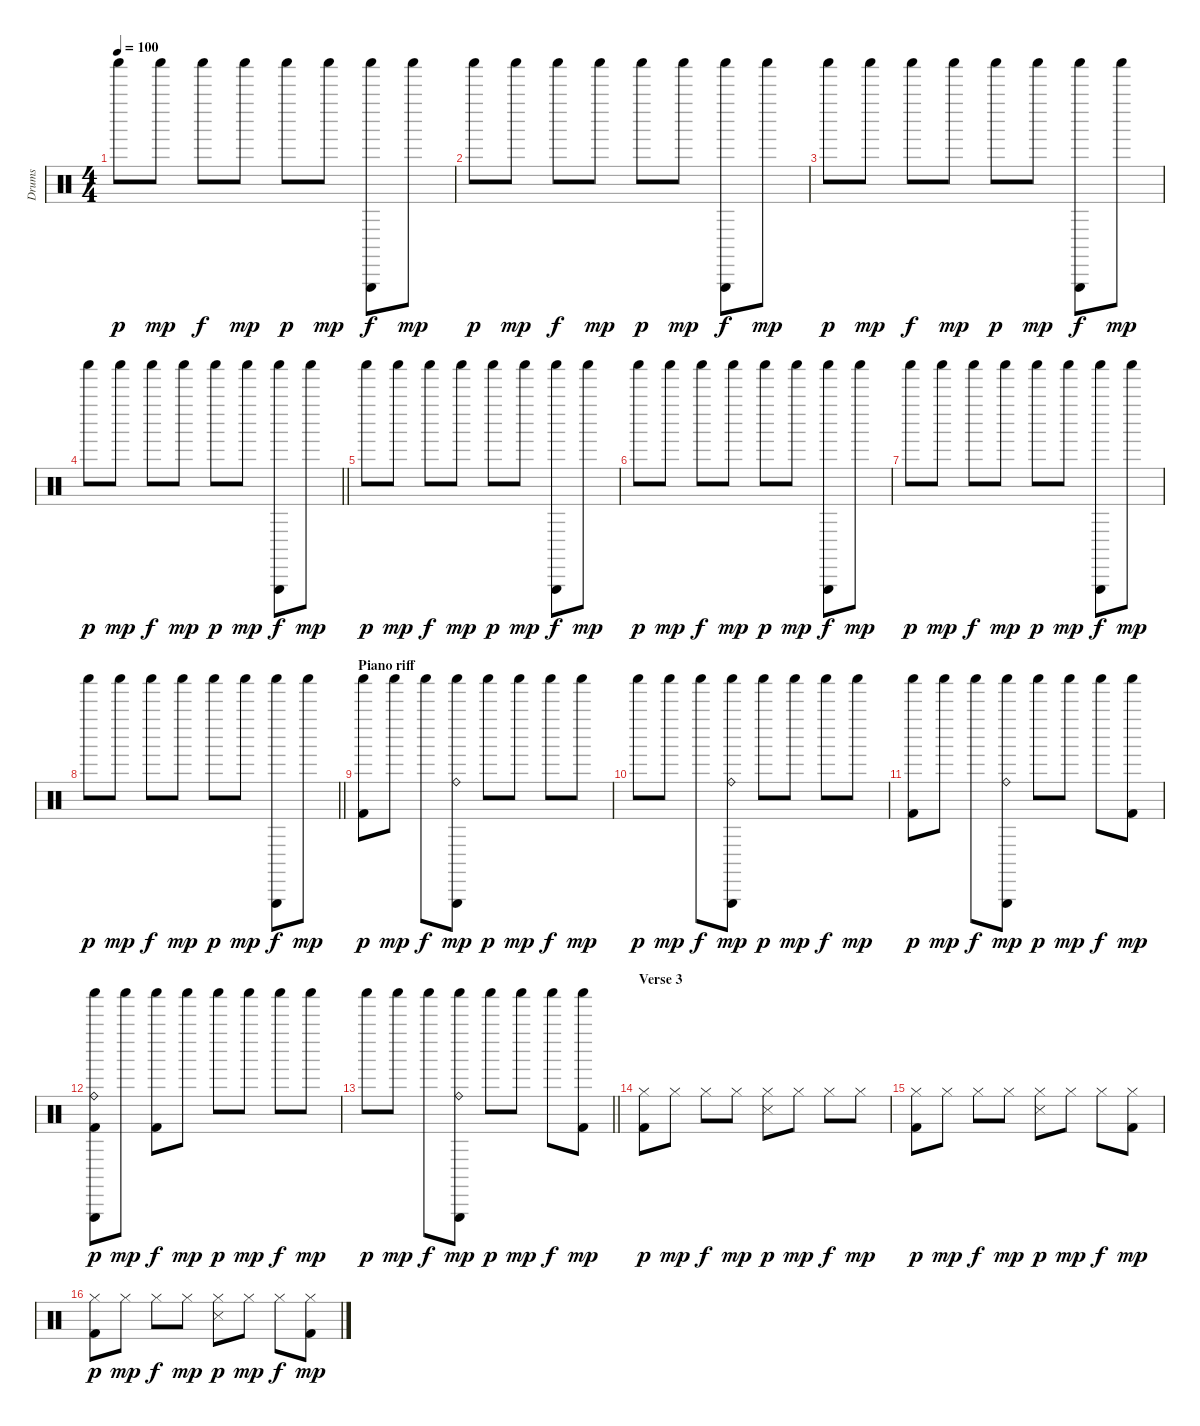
\track ("Drums" "Drums") {instrument percussion}
\staff {score}
\articulation defaults
\ts (4 4)
\tempo 100
\clef neutral
\ks c "Shaker (hit)".8{dy p} "Shaker (hit)".8{dy mp} "Shaker (hit)".8{dy f} "Shaker (hit)".8{dy mp} "Shaker (hit)".8{dy p} "Shaker (hit)".8{dy mp}
("Triangle (hit)" "Shaker (hit)").8{dy f} "Shaker (hit)".8{dy mp} |
"Shaker (hit)".8{dy p} "Shaker (hit)".8{dy mp} "Shaker (hit)".8{dy f} "Shaker (hit)".8{dy mp} "Shaker (hit)".8{dy p} "Shaker (hit)".8{dy mp} ("Triangle (hit)" "Shaker (hit)").8{dy f} "Shaker (hit)".8{dy mp} |
"Shaker (hit)".8{dy p} "Shaker (hit)".8{dy mp} "Shaker (hit)".8{dy f} "Shaker (hit)".8{dy mp} "Shaker (hit)".8{dy p} "Shaker (hit)".8{dy mp} ("Triangle (hit)" "Shaker (hit)").8{dy f} "Shaker (hit)".8{dy mp} |
\barLineRight lightlight "Shaker (hit)".8{dy p} "Shaker (hit)".8{dy mp} "Shaker (hit)".8{dy f} "Shaker (hit)".8{dy mp} "Shaker (hit)".8{dy p} "Shaker (hit)".8{dy mp}
("Triangle (hit)" "Shaker (hit)").8{dy f} "Shaker (hit)".8{dy mp} |
"Shaker (hit)".8{dy p} "Shaker (hit)".8{dy mp} "Shaker (hit)".8{dy f} "Shaker (hit)".8{dy mp} "Shaker (hit)".8{dy p} "Shaker (hit)".8{dy mp} ("Triangle (hit)" "Shaker (hit)").8{dy f} "Shaker (hit)".8{dy mp} |
"Shaker (hit)".8{dy p} "Shaker (hit)".8{dy mp} "Shaker (hit)".8{dy f} "Shaker (hit)".8{dy mp} "Shaker (hit)".8{dy p} "Shaker (hit)".8{dy mp} ("Triangle (hit)" "Shaker (hit)").8{dy f} "Shaker (hit)".8{dy mp} |
"Shaker (hit)".8{dy p} "Shaker (hit)".8{dy mp} "Shaker (hit)".8{dy f} "Shaker (hit)".8{dy mp} "Shaker (hit)".8{dy p} "Shaker (hit)".8{dy mp} ("Triangle (hit)" "Shaker (hit)").8{dy f} "Shaker (hit)".8{dy mp} |
\barLineRight lightlight "Shaker (hit)".8{dy p} "Shaker (hit)".8{dy mp} "Shaker (hit)".8{dy f} "Shaker (hit)".8{dy mp} "Shaker (hit)".8{dy p} "Shaker (hit)".8{dy mp}
("Triangle (hit)" "Shaker (hit)").8{dy f} "Shaker (hit)".8{dy mp} |
\section ("" "Piano riff")
("Shaker (hit)" "Kick (hit) 2").8{dy p} "Shaker (hit)".8{dy mp} "Shaker (hit)".8{dy f} ("Triangle (hit)" "Shaker (hit)" "Ride (bell)").8{dy mp} "Shaker (hit)".8{dy p} "Shaker (hit)".8{dy mp} "Shaker (hit)".8{dy f} "Shaker (hit)".8{dy mp} |
"Shaker (hit)".8{dy p} "Shaker (hit)".8{dy mp} "Shaker (hit)".8{dy f} ("Triangle (hit)" "Shaker (hit)" "Ride (bell)").8{dy mp} "Shaker (hit)".8{dy p} "Shaker (hit)".8{dy mp} "Shaker (hit)".8{dy f} "Shaker (hit)".8{dy mp} |
("Shaker (hit)" "Kick (hit) 2").8{dy p} "Shaker (hit)".8{dy mp} "Shaker (hit)".8{dy f} ("Triangle (hit)" "Shaker (hit)" "Ride (bell)").8{dy mp} "Shaker (hit)".8{dy p} "Shaker (hit)".8{dy mp} "Shaker (hit)".8{dy f} ("Shaker (hit)" "Kick (hit) 2").8{dy mp} |
("Triangle (hit)" "Shaker (hit)" "Ride (bell)" "Kick (hit) 2").8{dy p} "Shaker (hit)".8{dy mp} ("Shaker (hit)" "Kick (hit) 2").8{dy f} "Shaker (hit)".8{dy mp} "Shaker (hit)".8{dy p} "Shaker (hit)".8{dy mp} "Shaker (hit)".8{dy f} "Shaker (hit)".8{dy mp} |
\barLineRight lightlight "Shaker (hit)".8{dy p} "Shaker (hit)".8{dy mp} "Shaker (hit)".8{dy f}
("Triangle (hit)" "Shaker (hit)" "Ride (bell)").8{dy mp volume 16} "Shaker (hit)".8{dy p} "Shaker (hit)".8{dy mp} "Shaker (hit)".8{dy f} ("Shaker (hit)" "Kick (hit) 2").8{dy mp} |
\section ("" "Verse 3")
("Hi-Hat (closed)" "Kick (hit) 2").8{dy p} "Hi-Hat (closed)".8{dy mp} "Hi-Hat (closed)".8{dy f} "Hi-Hat (closed)".8{dy mp} ("Hi-Hat (closed)" "Snare (side stick) 3").8{dy p} "Hi-Hat (closed)".8{dy mp} "Hi-Hat (closed)".8{dy f} "Hi-Hat (closed)".8{dy mp} |
("Hi-Hat (closed)" "Kick (hit) 2").8{dy p} "Hi-Hat (closed)".8{dy mp} "Hi-Hat (closed)".8{dy f} "Hi-Hat (closed)".8{dy mp} ("Hi-Hat (closed)" "Snare (side stick) 3").8{dy p} "Hi-Hat (closed)".8{dy mp} "Hi-Hat (closed)".8{dy f} ("Hi-Hat (closed)" "Kick (hit) 2").8{dy mp} |
("Hi-Hat (closed)" "Kick (hit) 2").8{dy p} "Hi-Hat (closed)".8{dy mp} "Hi-Hat (closed)".8{dy f} "Hi-Hat (closed)".8{dy mp} ("Hi-Hat (closed)" "Snare (side stick) 3").8{dy p} "Hi-Hat (closed)".8{dy mp} "Hi-Hat (closed)".8{dy f} ("Hi-Hat (closed)" "Kick (hit) 2").8{dy mp}
